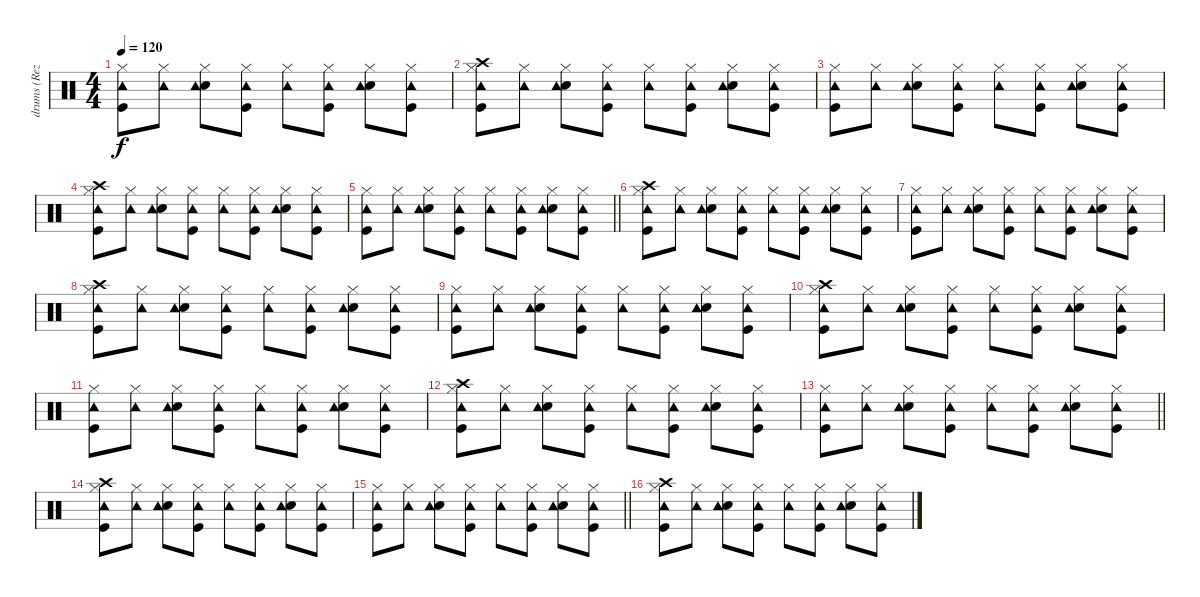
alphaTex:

\track ("drums (Reza)" "drums (Rez") {instrument percussion}
\staff {score}
\articulation defaults
\ts (4 4)
\tempo 120
\clef neutral
\ks c
("Hi-Hat (closed)" "Kick (hit)" "Tambourine (hit)").8{dy f} ("Hi-Hat (closed)" "Tambourine (hit)").8 ("Hi-Hat (closed)" "Snare (hit) 2" "Tambourine (hit)").8 ("Hi-Hat (closed)" "Kick (hit)" "Tambourine (hit)").8 ("Hi-Hat (closed)" "Tambourine (hit)").8 ("Hi-Hat (closed)" "Kick (hit)" "Tambourine (hit)").8 ("Hi-Hat (closed)" "Snare (hit) 2" "Tambourine (hit)").8 ("Hi-Hat (closed)" "Kick (hit)" "Tambourine (hit)").8 |
("Hi-Hat (closed)" "Kick (hit)" "Crash high (hit)" "Tambourine (hit)").8 ("Hi-Hat (closed)" "Tambourine (hit)").8 ("Hi-Hat (closed)" "Snare (hit) 2" "Tambourine (hit)").8 ("Hi-Hat (closed)" "Kick (hit)" "Tambourine (hit)").8 ("Hi-Hat (closed)" "Tambourine (hit)").8 ("Hi-Hat (closed)" "Kick (hit)" "Tambourine (hit)").8 ("Hi-Hat (closed)" "Snare (hit) 2" "Tambourine (hit)").8 ("Hi-Hat (closed)" "Kick (hit)" "Tambourine (hit)").8 |
("Hi-Hat (closed)" "Kick (hit)" "Tambourine (hit)").8 ("Hi-Hat (closed)" "Tambourine (hit)").8 ("Hi-Hat (closed)" "Snare (hit) 2" "Tambourine (hit)").8 ("Hi-Hat (closed)" "Kick (hit)" "Tambourine (hit)").8 ("Hi-Hat (closed)" "Tambourine (hit)").8 ("Hi-Hat (closed)" "Kick (hit)" "Tambourine (hit)").8 ("Hi-Hat (closed)" "Snare (hit) 2" "Tambourine (hit)").8 ("Hi-Hat (closed)" "Kick (hit)" "Tambourine (hit)").8 |
("Hi-Hat (closed)" "Kick (hit)" "Crash high (hit)" "Tambourine (hit)").8 ("Hi-Hat (closed)" "Tambourine (hit)").8 ("Hi-Hat (closed)" "Snare (hit) 2" "Tambourine (hit)").8 ("Hi-Hat (closed)" "Kick (hit)" "Tambourine (hit)").8 ("Hi-Hat (closed)" "Tambourine (hit)").8 ("Hi-Hat (closed)" "Kick (hit)" "Tambourine (hit)").8 ("Hi-Hat (closed)" "Snare (hit) 2" "Tambourine (hit)").8 ("Hi-Hat (closed)" "Kick (hit)" "Tambourine (hit)").8 |
\barLineRight lightlight
("Hi-Hat (closed)" "Kick (hit)" "Tambourine (hit)").8 ("Hi-Hat (closed)" "Tambourine (hit)").8 ("Hi-Hat (closed)" "Snare (hit) 2" "Tambourine (hit)").8 ("Hi-Hat (closed)" "Kick (hit)" "Tambourine (hit)").8 ("Hi-Hat (closed)" "Tambourine (hit)").8 ("Hi-Hat (closed)" "Kick (hit)" "Tambourine (hit)").8 ("Hi-Hat (closed)" "Snare (hit) 2" "Tambourine (hit)").8 ("Hi-Hat (closed)" "Kick (hit)" "Tambourine (hit)").8 |
("Hi-Hat (closed)" "Kick (hit)" "Crash high (hit)" "Tambourine (hit)").8 ("Hi-Hat (closed)" "Tambourine (hit)").8 ("Hi-Hat (closed)" "Snare (hit) 2" "Tambourine (hit)").8 ("Hi-Hat (closed)" "Kick (hit)" "Tambourine (hit)").8 ("Hi-Hat (closed)" "Tambourine (hit)").8 ("Hi-Hat (closed)" "Kick (hit)" "Tambourine (hit)").8 ("Hi-Hat (closed)" "Snare (hit) 2" "Tambourine (hit)").8 ("Hi-Hat (closed)" "Kick (hit)" "Tambourine (hit)").8 |
("Hi-Hat (closed)" "Kick (hit)" "Tambourine (hit)").8 ("Hi-Hat (closed)" "Tambourine (hit)").8 ("Hi-Hat (closed)" "Snare (hit) 2" "Tambourine (hit)").8 ("Hi-Hat (closed)" "Kick (hit)" "Tambourine (hit)").8 ("Hi-Hat (closed)" "Tambourine (hit)").8 ("Hi-Hat (closed)" "Kick (hit)" "Tambourine (hit)").8 ("Hi-Hat (closed)" "Snare (hit) 2" "Tambourine (hit)").8 ("Hi-Hat (closed)" "Kick (hit)" "Tambourine (hit)").8 |
("Hi-Hat (closed)" "Kick (hit)" "Crash high (hit)" "Tambourine (hit)").8 ("Hi-Hat (closed)" "Tambourine (hit)").8 ("Hi-Hat (closed)" "Snare (hit) 2" "Tambourine (hit)").8 ("Hi-Hat (closed)" "Kick (hit)" "Tambourine (hit)").8 ("Hi-Hat (closed)" "Tambourine (hit)").8 ("Hi-Hat (closed)" "Kick (hit)" "Tambourine (hit)").8 ("Hi-Hat (closed)" "Snare (hit) 2" "Tambourine (hit)").8 ("Hi-Hat (closed)" "Kick (hit)" "Tambourine (hit)").8 |
("Hi-Hat (closed)" "Kick (hit)" "Tambourine (hit)").8 ("Hi-Hat (closed)" "Tambourine (hit)").8 ("Hi-Hat (closed)" "Snare (hit) 2" "Tambourine (hit)").8 ("Hi-Hat (closed)" "Kick (hit)" "Tambourine (hit)").8 ("Hi-Hat (closed)" "Tambourine (hit)").8 ("Hi-Hat (closed)" "Kick (hit)" "Tambourine (hit)").8 ("Hi-Hat (closed)" "Snare (hit) 2" "Tambourine (hit)").8 ("Hi-Hat (closed)" "Kick (hit)" "Tambourine (hit)").8 |
("Hi-Hat (closed)" "Kick (hit)" "Crash high (hit)" "Tambourine (hit)").8 ("Hi-Hat (closed)" "Tambourine (hit)").8 ("Hi-Hat (closed)" "Snare (hit) 2" "Tambourine (hit)").8 ("Hi-Hat (closed)" "Kick (hit)" "Tambourine (hit)").8 ("Hi-Hat (closed)" "Tambourine (hit)").8 ("Hi-Hat (closed)" "Kick (hit)" "Tambourine (hit)").8 ("Hi-Hat (closed)" "Snare (hit) 2" "Tambourine (hit)").8 ("Hi-Hat (closed)" "Kick (hit)" "Tambourine (hit)").8 |
("Hi-Hat (closed)" "Kick (hit)" "Tambourine (hit)").8 ("Hi-Hat (closed)" "Tambourine (hit)").8 ("Hi-Hat (closed)" "Snare (hit) 2" "Tambourine (hit)").8 ("Hi-Hat (closed)" "Kick (hit)" "Tambourine (hit)").8 ("Hi-Hat (closed)" "Tambourine (hit)").8 ("Hi-Hat (closed)" "Kick (hit)" "Tambourine (hit)").8 ("Hi-Hat (closed)" "Snare (hit) 2" "Tambourine (hit)").8 ("Hi-Hat (closed)" "Kick (hit)" "Tambourine (hit)").8 |
("Hi-Hat (closed)" "Kick (hit)" "Crash high (hit)" "Tambourine (hit)").8 ("Hi-Hat (closed)" "Tambourine (hit)").8 ("Hi-Hat (closed)" "Snare (hit) 2" "Tambourine (hit)").8 ("Hi-Hat (closed)" "Kick (hit)" "Tambourine (hit)").8 ("Hi-Hat (closed)" "Tambourine (hit)").8 ("Hi-Hat (closed)" "Kick (hit)" "Tambourine (hit)").8 ("Hi-Hat (closed)" "Snare (hit) 2" "Tambourine (hit)").8 ("Hi-Hat (closed)" "Kick (hit)" "Tambourine (hit)").8 |
\barLineRight lightlight
("Hi-Hat (closed)" "Kick (hit)" "Tambourine (hit)").8 ("Hi-Hat (closed)" "Tambourine (hit)").8 ("Hi-Hat (closed)" "Snare (hit) 2" "Tambourine (hit)").8 ("Hi-Hat (closed)" "Kick (hit)" "Tambourine (hit)").8 ("Hi-Hat (closed)" "Tambourine (hit)").8 ("Hi-Hat (closed)" "Kick (hit)" "Tambourine (hit)").8 ("Hi-Hat (closed)" "Snare (hit) 2" "Tambourine (hit)").8 ("Hi-Hat (closed)" "Kick (hit)" "Tambourine (hit)").8 |
("Hi-Hat (closed)" "Kick (hit)" "Crash high (hit)" "Tambourine (hit)").8 ("Hi-Hat (closed)" "Tambourine (hit)").8 ("Hi-Hat (closed)" "Snare (hit) 2" "Tambourine (hit)").8 ("Hi-Hat (closed)" "Kick (hit)" "Tambourine (hit)").8 ("Hi-Hat (closed)" "Tambourine (hit)").8 ("Hi-Hat (closed)" "Kick (hit)" "Tambourine (hit)").8 ("Hi-Hat (closed)" "Snare (hit) 2" "Tambourine (hit)").8 ("Hi-Hat (closed)" "Kick (hit)" "Tambourine (hit)").8 |
\barLineRight lightlight
("Hi-Hat (closed)" "Kick (hit)" "Tambourine (hit)").8 ("Hi-Hat (closed)" "Tambourine (hit)").8 ("Hi-Hat (closed)" "Snare (hit) 2" "Tambourine (hit)").8 ("Hi-Hat (closed)" "Kick (hit)" "Tambourine (hit)").8 ("Hi-Hat (closed)" "Tambourine (hit)").8 ("Hi-Hat (closed)" "Kick (hit)" "Tambourine (hit)").8 ("Hi-Hat (closed)" "Snare (hit) 2" "Tambourine (hit)").8 ("Hi-Hat (closed)" "Kick (hit)" "Tambourine (hit)").8 |
("Hi-Hat (closed)" "Kick (hit)" "Crash high (hit)" "Tambourine (hit)").8 ("Hi-Hat (closed)" "Tambourine (hit)").8 ("Hi-Hat (closed)" "Snare (hit) 2" "Tambourine (hit)").8 ("Hi-Hat (closed)" "Kick (hit)" "Tambourine (hit)").8 ("Hi-Hat (closed)" "Tambourine (hit)").8 ("Hi-Hat (closed)" "Kick (hit)" "Tambourine (hit)").8 ("Hi-Hat (closed)" "Snare (hit) 2" "Tambourine (hit)").8 ("Hi-Hat (closed)" "Kick (hit)" "Tambourine (hit)").8
